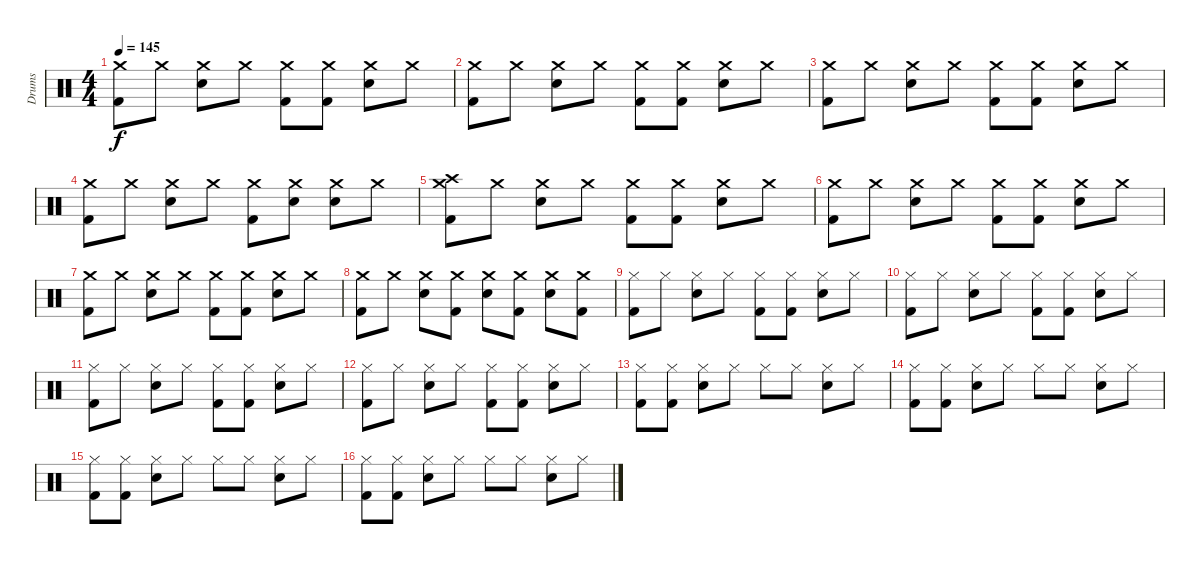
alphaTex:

\track ("Drums" "Drums") {instrument percussion}
\staff {score}
\articulation defaults
\ts (4 4)
\tempo 145
\clef neutral
\ks c
("Crash medium (hit)" "Kick (hit) 2").8{dy f} "Crash medium (hit)".8 ("Crash medium (hit)" "Snare (hit) 2").8 "Crash medium (hit)".8 ("Crash medium (hit)" "Kick (hit) 2").8 ("Crash medium (hit)" "Kick (hit) 2").8 ("Crash medium (hit)" "Snare (hit) 2").8 "Crash medium (hit)".8 |
("Crash medium (hit)" "Kick (hit) 2").8 "Crash medium (hit)".8 ("Crash medium (hit)" "Snare (hit) 2").8 "Crash medium (hit)".8 ("Crash medium (hit)" "Kick (hit) 2").8 ("Crash medium (hit)" "Kick (hit) 2").8 ("Crash medium (hit)" "Snare (hit) 2").8 "Crash medium (hit)".8 |
("Crash medium (hit)" "Kick (hit) 2").8 "Crash medium (hit)".8 ("Crash medium (hit)" "Snare (hit) 2").8 "Crash medium (hit)".8 ("Crash medium (hit)" "Kick (hit) 2").8 ("Crash medium (hit)" "Kick (hit) 2").8 ("Crash medium (hit)" "Snare (hit) 2").8 "Crash medium (hit)".8 |
("Crash medium (hit)" "Kick (hit) 2").8 "Crash medium (hit)".8 ("Crash medium (hit)" "Snare (hit) 2").8 "Crash medium (hit)".8 ("Crash medium (hit)" "Kick (hit) 2").8 ("Crash medium (hit)" "Snare (hit) 2").8 ("Crash medium (hit)" "Snare (hit) 2").8 "Crash medium (hit)".8 |
("Crash medium (hit)" "Crash high (hit)" "Kick (hit) 2").8 "Crash medium (hit)".8 ("Crash medium (hit)" "Snare (hit) 2").8 "Crash medium (hit)".8 ("Crash medium (hit)" "Kick (hit) 2").8 ("Crash medium (hit)" "Kick (hit) 2").8 ("Crash medium (hit)" "Snare (hit) 2").8 "Crash medium (hit)".8 |
("Crash medium (hit)" "Kick (hit) 2").8 "Crash medium (hit)".8 ("Crash medium (hit)" "Snare (hit) 2").8 "Crash medium (hit)".8 ("Crash medium (hit)" "Kick (hit) 2").8 ("Crash medium (hit)" "Kick (hit) 2").8 ("Crash medium (hit)" "Snare (hit) 2").8 "Crash medium (hit)".8 |
("Crash medium (hit)" "Kick (hit) 2").8 "Crash medium (hit)".8 ("Crash medium (hit)" "Snare (hit) 2").8 "Crash medium (hit)".8 ("Crash medium (hit)" "Kick (hit) 2").8 ("Crash medium (hit)" "Kick (hit) 2").8 ("Crash medium (hit)" "Snare (hit) 2").8 "Crash medium (hit)".8 |
("Crash medium (hit)" "Kick (hit) 2").8 "Crash medium (hit)".8 ("Crash medium (hit)" "Snare (hit) 2").8 ("Crash medium (hit)" "Kick (hit) 2").8 ("Crash medium (hit)" "Snare (hit) 2").8 ("Crash medium (hit)" "Kick (hit) 2").8 ("Crash medium (hit)" "Snare (hit) 2").8 ("Crash medium (hit)" "Kick (hit) 2").8 |
("Hi-Hat (closed)" "Kick (hit) 2").8 "Hi-Hat (closed)".8 ("Hi-Hat (closed)" "Snare (hit) 2").8 "Hi-Hat (closed)".8 ("Hi-Hat (closed)" "Kick (hit) 2").8 ("Hi-Hat (closed)" "Kick (hit) 2").8 ("Hi-Hat (closed)" "Snare (hit) 2").8 "Hi-Hat (closed)".8 |
("Hi-Hat (closed)" "Kick (hit) 2").8 "Hi-Hat (closed)".8 ("Hi-Hat (closed)" "Snare (hit) 2").8 "Hi-Hat (closed)".8 ("Hi-Hat (closed)" "Kick (hit) 2").8 ("Hi-Hat (closed)" "Kick (hit) 2").8 ("Hi-Hat (closed)" "Snare (hit) 2").8 "Hi-Hat (closed)".8 |
("Hi-Hat (closed)" "Kick (hit) 2").8 "Hi-Hat (closed)".8 ("Hi-Hat (closed)" "Snare (hit) 2").8 "Hi-Hat (closed)".8 ("Hi-Hat (closed)" "Kick (hit) 2").8 ("Hi-Hat (closed)" "Kick (hit) 2").8 ("Hi-Hat (closed)" "Snare (hit) 2").8 "Hi-Hat (closed)".8 |
("Hi-Hat (closed)" "Kick (hit) 2").8 "Hi-Hat (closed)".8 ("Hi-Hat (closed)" "Snare (hit) 2").8 "Hi-Hat (closed)".8 ("Hi-Hat (closed)" "Kick (hit) 2").8 ("Hi-Hat (closed)" "Kick (hit) 2").8 ("Hi-Hat (closed)" "Snare (hit) 2").8 "Hi-Hat (closed)".8 |
("Hi-Hat (closed)" "Kick (hit) 2").8 ("Hi-Hat (closed)" "Kick (hit) 2").8 ("Hi-Hat (closed)" "Snare (hit) 2").8 "Hi-Hat (closed)".8 "Hi-Hat (closed)".8 "Hi-Hat (closed)".8 ("Hi-Hat (closed)" "Snare (hit) 2").8 "Hi-Hat (closed)".8 |
("Hi-Hat (closed)" "Kick (hit) 2").8 ("Hi-Hat (closed)" "Kick (hit) 2").8 ("Hi-Hat (closed)" "Snare (hit) 2").8 "Hi-Hat (closed)".8 "Hi-Hat (closed)".8 "Hi-Hat (closed)".8 ("Hi-Hat (closed)" "Snare (hit) 2").8 "Hi-Hat (closed)".8 |
("Hi-Hat (closed)" "Kick (hit) 2").8 ("Hi-Hat (closed)" "Kick (hit) 2").8 ("Hi-Hat (closed)" "Snare (hit) 2").8 "Hi-Hat (closed)".8 "Hi-Hat (closed)".8 "Hi-Hat (closed)".8 ("Hi-Hat (closed)" "Snare (hit) 2").8 "Hi-Hat (closed)".8 |
("Hi-Hat (closed)" "Kick (hit) 2").8 ("Hi-Hat (closed)" "Kick (hit) 2").8 ("Hi-Hat (closed)" "Snare (hit) 2").8 "Hi-Hat (closed)".8 "Hi-Hat (closed)".8 "Hi-Hat (closed)".8 ("Hi-Hat (closed)" "Snare (hit) 2").8 "Hi-Hat (closed)".8
